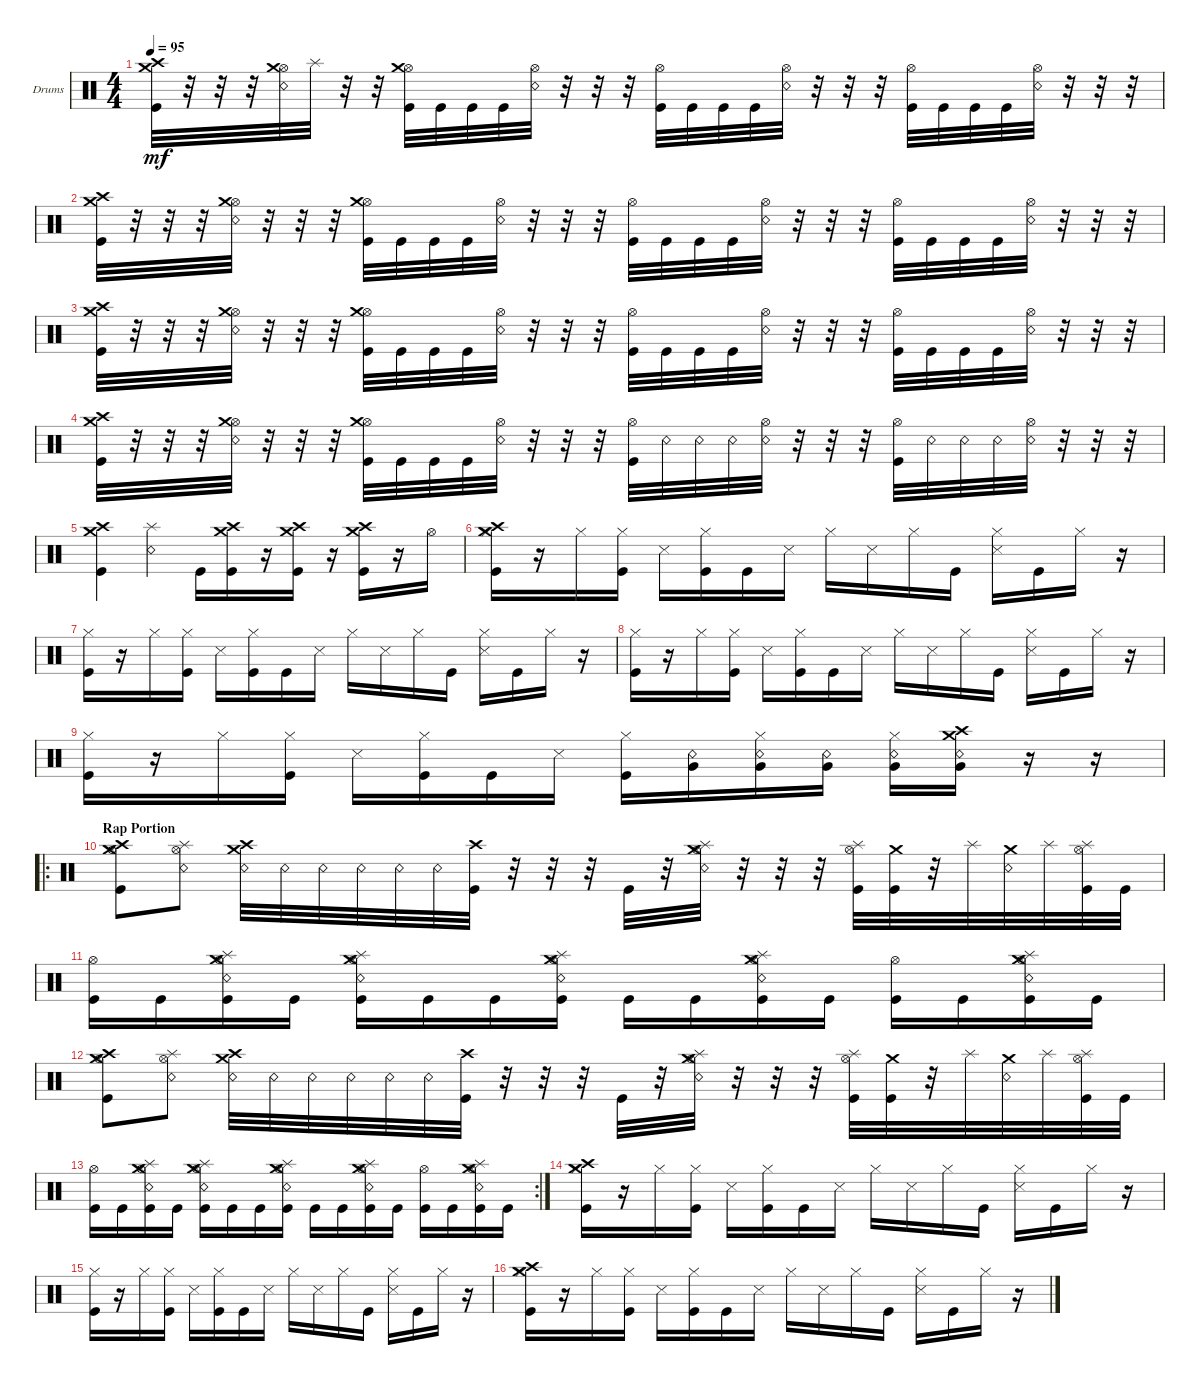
\bracketExtendMode groupsimilarinstruments
\firstSystemTrackNameOrientation horizontal
\otherSystemsTrackNameOrientation horizontal
\track ("Drumkit" "Drums") {instrument percussion}
\staff {score}
\articulation defaults
\ts (4 4)
\tempo 95
\clef neutral
\ks c
("Kick (hit)" "Crash medium (hit)" "Crash high (hit)").32{dy mf} r.32 r.32 r.32 ("Snare (rim shot)" "Hi-Hat (open)" "Crash medium (hit)").32 "Splash (hit)".32 r.32 r.32 ("Kick (hit)" "Hi-Hat (open)" "Crash medium (hit)").32 "Kick (hit)".32 "Kick (hit)".32 "Kick (hit)".32 ("Snare (rim shot)" "Hi-Hat (open)").32 r.32 r.32 r.32 ("Kick (hit)" "Hi-Hat (open)").32 "Kick (hit)".32 "Kick (hit)".32 "Kick (hit)".32 ("Snare (rim shot)" "Hi-Hat (open)").32 r.32 r.32 r.32 ("Kick (hit)" "Hi-Hat (open)").32 "Kick (hit)".32 "Kick (hit)".32 "Kick (hit)".32 ("Snare (rim shot)" "Hi-Hat (open)").32 r.32 r.32 r.32 |
("Kick (hit)" "Crash medium (hit)" "Crash high (hit)").32 r.32 r.32 r.32 ("Snare (rim shot)" "Hi-Hat (open)" "Crash medium (hit)").32 r.32 r.32 r.32 ("Kick (hit)" "Hi-Hat (open)" "Crash medium (hit)").32 "Kick (hit)".32 "Kick (hit)".32 "Kick (hit)".32 ("Snare (rim shot)" "Hi-Hat (open)").32 r.32 r.32 r.32 ("Kick (hit)" "Hi-Hat (open)").32 "Kick (hit)".32 "Kick (hit)".32 "Kick (hit)".32 ("Snare (rim shot)" "Hi-Hat (open)").32 r.32 r.32 r.32 ("Kick (hit)" "Hi-Hat (open)").32 "Kick (hit)".32 "Kick (hit)".32 "Kick (hit)".32 ("Snare (rim shot)" "Hi-Hat (open)").32 r.32 r.32 r.32 |
("Kick (hit)" "Crash medium (hit)" "Crash high (hit)").32 r.32 r.32 r.32 ("Snare (rim shot)" "Hi-Hat (open)" "Crash medium (hit)").32 r.32 r.32 r.32 ("Kick (hit)" "Hi-Hat (open)" "Crash medium (hit)").32 "Kick (hit)".32 "Kick (hit)".32 "Kick (hit)".32 ("Snare (rim shot)" "Hi-Hat (open)").32 r.32 r.32 r.32 ("Kick (hit)" "Hi-Hat (open)").32 "Kick (hit)".32 "Kick (hit)".32 "Kick (hit)".32 ("Snare (rim shot)" "Hi-Hat (open)").32 r.32 r.32 r.32 ("Kick (hit)" "Hi-Hat (open)").32 "Kick (hit)".32 "Kick (hit)".32 "Kick (hit)".32 ("Snare (rim shot)" "Hi-Hat (open)").32 r.32 r.32 r.32 |
("Kick (hit)" "Crash medium (hit)" "Crash high (hit)").32 r.32 r.32 r.32 ("Snare (rim shot)" "Hi-Hat (open)" "Crash medium (hit)").32 r.32 r.32 r.32 ("Kick (hit)" "Hi-Hat (open)" "Crash medium (hit)").32 "Kick (hit)".32 "Kick (hit)".32 "Kick (hit)".32 ("Snare (rim shot)" "Hi-Hat (open)").32 r.32 r.32 r.32 ("Kick (hit)" "Hi-Hat (open)").32 "Snare (rim shot)".32 "Snare (rim shot)".32 "Snare (rim shot)".32 ("Snare (rim shot)" "Hi-Hat (open)").32 r.32 r.32 r.32 ("Kick (hit)" "Hi-Hat (open)").32 "Snare (rim shot)".32 "Snare (rim shot)".32 "Snare (rim shot)".32 ("Snare (rim shot)" "Hi-Hat (open)").32 r.32 r.32 r.32 |
("Kick (hit)" "Crash medium (hit)" "Crash high (hit)").4 ("Snare (rim shot)" "Splash (hit)").4 "Kick (hit)".16 ("Kick (hit)" "Crash medium (hit)" "Crash high (hit)").16 r.16 ("Kick (hit)" "Crash medium (hit)" "Crash high (hit)").16 r.16 ("Kick (hit)" "Crash medium (hit)" "Crash high (hit)").16 r.16 "Hi-Hat (open)".16 |
("Kick (hit)" "Hi-Hat (closed)" "Crash medium (hit)" "Crash high (hit)").16 r.16 "Hi-Hat (closed)".16 ("Kick (hit)" "Hi-Hat (closed)").16 "Snare (side stick) 3".16 ("Kick (hit)" "Hi-Hat (closed)").16 "Kick (hit)".16 "Snare (side stick) 3".16 "Hi-Hat (closed)".16 "Snare (side stick) 3".16 "Hi-Hat (closed)".16 "Kick (hit)".16 ("Hi-Hat (closed)" "Snare (side stick) 3").16 "Kick (hit)".16 "Hi-Hat (closed)".16 r.16 |
("Kick (hit)" "Hi-Hat (closed)").16 r.16 "Hi-Hat (closed)".16 ("Kick (hit)" "Hi-Hat (closed)").16 "Snare (side stick) 3".16 ("Kick (hit)" "Hi-Hat (closed)").16 "Kick (hit)".16 "Snare (side stick) 3".16 "Hi-Hat (closed)".16 "Snare (side stick) 3".16 "Hi-Hat (closed)".16 "Kick (hit)".16 ("Hi-Hat (closed)" "Snare (side stick) 3").16 "Kick (hit)".16 "Hi-Hat (closed)".16 r.16 |
("Kick (hit)" "Hi-Hat (closed)").16 r.16 "Hi-Hat (closed)".16 ("Kick (hit)" "Hi-Hat (closed)").16 "Snare (side stick) 3".16 ("Kick (hit)" "Hi-Hat (closed)").16 "Kick (hit)".16 "Snare (side stick) 3".16 "Hi-Hat (closed)".16 "Snare (side stick) 3".16 "Hi-Hat (closed)".16 "Kick (hit)".16 ("Hi-Hat (closed)" "Snare (side stick) 3").16 "Kick (hit)".16 "Hi-Hat (closed)".16 r.16 |
("Kick (hit)" "Hi-Hat (closed)").16 r.16 "Hi-Hat (closed)".16 ("Kick (hit)" "Hi-Hat (closed)").16 "Snare (side stick) 3".16 ("Kick (hit)" "Hi-Hat (closed)").16 "Kick (hit)".16 "Snare (side stick) 3".16 ("Hi-Hat (closed)" "Kick (hit)").16 ("Snare (rim shot)" "Very Low Tom (hit)").16 ("Hi-Hat (closed)" "Snare (rim shot)" "Very Low Tom (hit)").16 ("Snare (rim shot)" "Very Low Tom (hit)").16 ("Hi-Hat (closed)" "Snare (rim shot)" "Very Low Tom (hit)").16 ("Snare (rim shot)" "Very Low Tom (hit)" "Crash medium (hit)" "Crash high (hit)").16 r.16 r.16 |
\ro
\section ("" "Rap Portion")
("Kick (hit)" "Hi-Hat (open)" "Crash medium (hit)" "Crash high (hit)").8 ("Hi-Hat (open)" "Snare (rim shot)" "Splash (hit)").8 ("Crash medium (hit)" "Crash high (hit)" "Snare (rim shot)").32 "Snare (rim shot)".32 "Snare (rim shot)".32 "Snare (rim shot)".32 "Snare (rim shot)".32 "Snare (rim shot)".32 ("Kick (hit)" "Crash high (hit)").32 r.32 r.32 r.32 "Kick (hit)".32 r.32 ("Snare (rim shot)" "Crash medium (hit)" "Hi-Hat (open)" "Splash (hit)").32 r.32 r.32 r.32 ("Kick (hit)" "Hi-Hat (open)" "Splash (hit)").32 ("Kick (hit)" "Crash medium (hit)").32 r.32 "Splash (hit)".32 ("Snare (rim shot)" "Crash medium (hit)").32 "Splash (hit)".32 ("Kick (hit)" "Hi-Hat (open)" "Splash (hit)").32 "Kick (hit)".32 |
("Kick (hit)" "Hi-Hat (open)").16 "Kick (hit)".16 ("Kick (hit)" "Snare (rim shot)" "Crash medium (hit)" "Hi-Hat (open)" "Splash (hit)").16 "Kick (hit)".16 ("Kick (hit)" "Snare (rim shot)" "Crash medium (hit)" "Hi-Hat (open)" "Splash (hit)").16 "Kick (hit)".16 "Kick (hit)".16 ("Kick (hit)" "Snare (rim shot)" "Crash medium (hit)" "Hi-Hat (open)" "Splash (hit)").16 "Kick (hit)".16 "Kick (hit)".16 ("Kick (hit)" "Snare (rim shot)" "Crash medium (hit)" "Hi-Hat (open)" "Splash (hit)").16 "Kick (hit)".16 ("Kick (hit)" "Hi-Hat (open)").16 "Kick (hit)".16 ("Kick (hit)" "Snare (rim shot)" "Crash medium (hit)" "Hi-Hat (open)" "Splash (hit)").16 "Kick (hit)".16 |
("Kick (hit)" "Hi-Hat (open)" "Crash medium (hit)" "Crash high (hit)").8 ("Hi-Hat (open)" "Snare (rim shot)" "Splash (hit)").8 ("Crash medium (hit)" "Crash high (hit)" "Snare (rim shot)").32 "Snare (rim shot)".32 "Snare (rim shot)".32 "Snare (rim shot)".32 "Snare (rim shot)".32 "Snare (rim shot)".32 ("Kick (hit)" "Crash high (hit)").32 r.32 r.32 r.32 "Kick (hit)".32 r.32 ("Snare (rim shot)" "Crash medium (hit)" "Hi-Hat (open)" "Splash (hit)").32 r.32 r.32 r.32 ("Kick (hit)" "Hi-Hat (open)" "Splash (hit)").32 ("Kick (hit)" "Crash medium (hit)").32 r.32 "Splash (hit)".32 ("Snare (rim shot)" "Crash medium (hit)").32 "Splash (hit)".32 ("Kick (hit)" "Hi-Hat (open)" "Splash (hit)").32 "Kick (hit)".32 |
\rc 2
("Kick (hit)" "Hi-Hat (open)").16 "Kick (hit)".16 ("Kick (hit)" "Snare (rim shot)" "Crash medium (hit)" "Hi-Hat (open)" "Splash (hit)").16 "Kick (hit)".16 ("Kick (hit)" "Snare (rim shot)" "Crash medium (hit)" "Hi-Hat (open)" "Splash (hit)").16 "Kick (hit)".16 "Kick (hit)".16 ("Kick (hit)" "Snare (rim shot)" "Crash medium (hit)" "Hi-Hat (open)" "Splash (hit)").16 "Kick (hit)".16 "Kick (hit)".16 ("Kick (hit)" "Snare (rim shot)" "Crash medium (hit)" "Hi-Hat (open)" "Splash (hit)").16 "Kick (hit)".16 ("Kick (hit)" "Hi-Hat (open)").16 "Kick (hit)".16 ("Kick (hit)" "Snare (rim shot)" "Crash medium (hit)" "Hi-Hat (open)" "Splash (hit)").16 "Kick (hit)".16 |
("Kick (hit)" "Hi-Hat (closed)" "Crash medium (hit)" "Crash high (hit)").16 r.16 "Hi-Hat (closed)".16 ("Kick (hit)" "Hi-Hat (closed)").16 "Snare (side stick) 3".16 ("Kick (hit)" "Hi-Hat (closed)").16 "Kick (hit)".16 "Snare (side stick) 3".16 "Hi-Hat (closed)".16 "Snare (side stick) 3".16 "Hi-Hat (closed)".16 "Kick (hit)".16 ("Hi-Hat (closed)" "Snare (side stick) 3").16 "Kick (hit)".16 "Hi-Hat (closed)".16 r.16 |
("Kick (hit)" "Hi-Hat (closed)").16 r.16 "Hi-Hat (closed)".16 ("Kick (hit)" "Hi-Hat (closed)").16 "Snare (side stick) 3".16 ("Kick (hit)" "Hi-Hat (closed)").16 "Kick (hit)".16 "Snare (side stick) 3".16 "Hi-Hat (closed)".16 "Snare (side stick) 3".16 "Hi-Hat (closed)".16 "Kick (hit)".16 ("Hi-Hat (closed)" "Snare (side stick) 3").16 "Kick (hit)".16 "Hi-Hat (closed)".16 r.16 |
("Kick (hit)" "Hi-Hat (closed)" "Crash medium (hit)" "Crash high (hit)").16 r.16 "Hi-Hat (closed)".16 ("Kick (hit)" "Hi-Hat (closed)").16 "Snare (side stick) 3".16 ("Kick (hit)" "Hi-Hat (closed)").16 "Kick (hit)".16 "Snare (side stick) 3".16 "Hi-Hat (closed)".16 "Snare (side stick) 3".16 "Hi-Hat (closed)".16 "Kick (hit)".16 ("Hi-Hat (closed)" "Snare (side stick) 3").16 "Kick (hit)".16 "Hi-Hat (closed)".16 r.16
